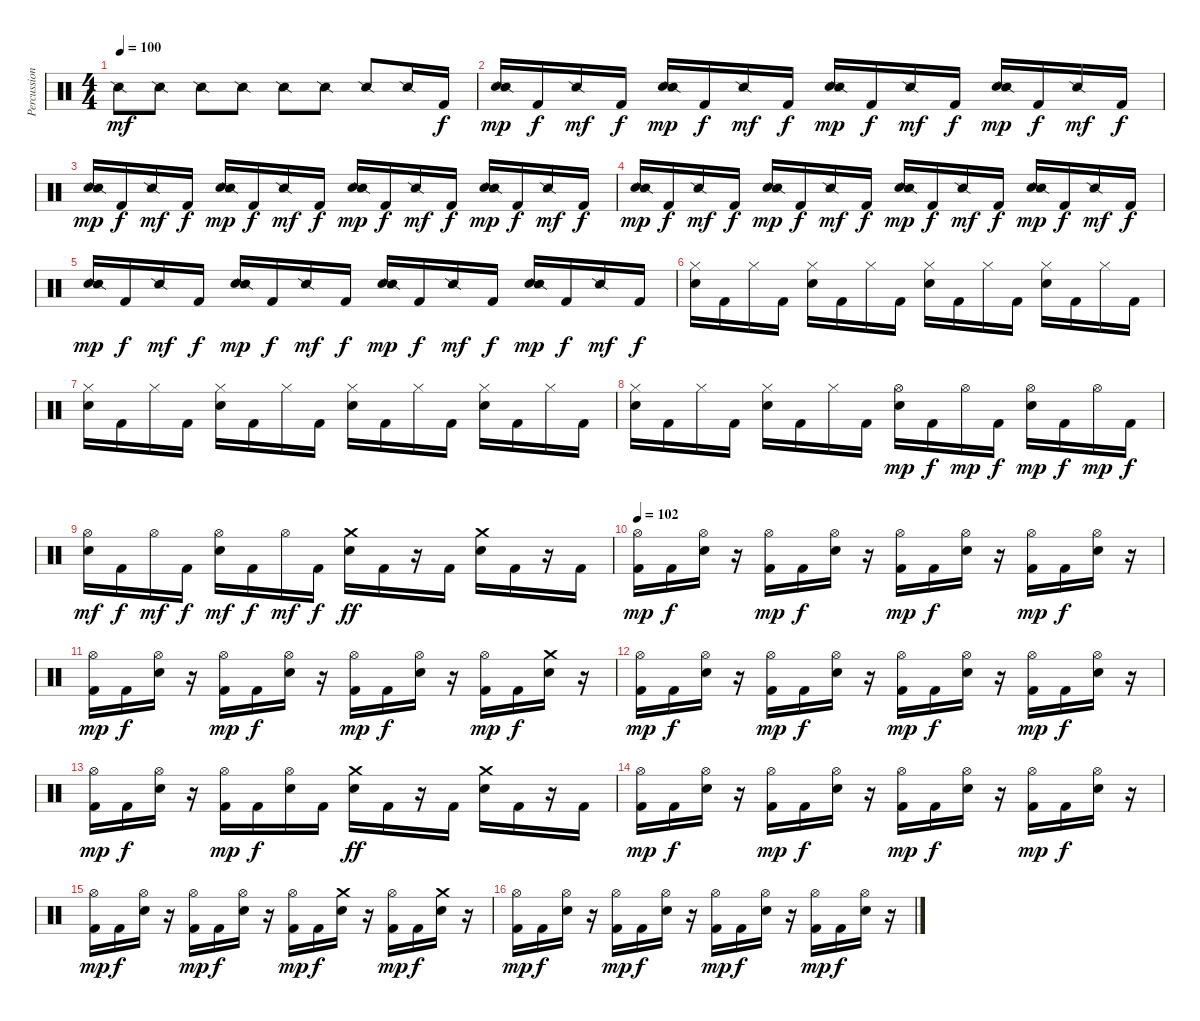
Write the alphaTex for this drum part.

\track ("Percussion" "Percussion") {instrument percussion}
\staff {score}
\articulation defaults
\ts (4 4)
\tempo 100
\clef neutral
\ks c "Snare (side stick) 2".8{dy mf} "Snare (side stick) 2".8 "Snare (side stick) 2".8 "Snare (side stick) 2".8 "Snare (side stick) 2".8 "Snare (side stick) 2".8 "Snare (side stick) 2".8 "Snare (side stick) 2".16 "Kick (hit) 2".16{dy f}
|
("Electric Snare (hit)" "Snare (side stick) 2").16{dy mp} "Kick (hit) 2".16{dy f} "Snare (side stick) 2".16{dy mf} "Kick (hit) 2".16{dy f} ("Electric Snare (hit)" "Snare (side stick) 2").16{dy mp} "Kick (hit) 2".16{dy f} "Snare (side stick) 2".16{dy mf} "Kick (hit) 2".16{dy f} ("Electric Snare (hit)" "Snare (side stick) 2").16{dy mp} "Kick (hit) 2".16{dy f} "Snare (side stick) 2".16{dy mf} "Kick (hit) 2".16{dy f} ("Electric Snare (hit)" "Snare (side stick) 2").16{dy mp} "Kick (hit) 2".16{dy f} "Snare (side stick) 2".16{dy mf} "Kick (hit) 2".16{dy f} |
("Electric Snare (hit)" "Snare (side stick) 2").16{dy mp} "Kick (hit) 2".16{dy f} "Snare (side stick) 2".16{dy mf} "Kick (hit) 2".16{dy f} ("Electric Snare (hit)" "Snare (side stick) 2").16{dy mp} "Kick (hit) 2".16{dy f} "Snare (side stick) 2".16{dy mf} "Kick (hit) 2".16{dy f} ("Electric Snare (hit)" "Snare (side stick) 2").16{dy mp} "Kick (hit) 2".16{dy f} "Snare (side stick) 2".16{dy mf} "Kick (hit) 2".16{dy f} ("Electric Snare (hit)" "Snare (side stick) 2").16{dy mp} "Kick (hit) 2".16{dy f} "Snare (side stick) 2".16{dy mf} "Kick (hit) 2".16{dy f} |
("Electric Snare (hit)" "Snare (side stick) 2").16{dy mp} "Kick (hit) 2".16{dy f} "Snare (side stick) 2".16{dy mf} "Kick (hit) 2".16{dy f} ("Electric Snare (hit)" "Snare (side stick) 2").16{dy mp} "Kick (hit) 2".16{dy f} "Snare (side stick) 2".16{dy mf} "Kick (hit) 2".16{dy f} ("Electric Snare (hit)" "Snare (side stick) 2").16{dy mp} "Kick (hit) 2".16{dy f} "Snare (side stick) 2".16{dy mf} "Kick (hit) 2".16{dy f} ("Electric Snare (hit)" "Snare (side stick) 2").16{dy mp} "Kick (hit) 2".16{dy f} "Snare (side stick) 2".16{dy mf} "Kick (hit) 2".16{dy f} |
("Electric Snare (hit)" "Snare (side stick) 2").16{dy mp} "Kick (hit) 2".16{dy f} "Snare (side stick) 2".16{dy mf} "Kick (hit) 2".16{dy f} ("Electric Snare (hit)" "Snare (side stick) 2").16{dy mp} "Kick (hit) 2".16{dy f} "Snare (side stick) 2".16{dy mf} "Kick (hit) 2".16{dy f} ("Electric Snare (hit)" "Snare (side stick) 2").16{dy mp} "Kick (hit) 2".16{dy f} "Snare (side stick) 2".16{dy mf} "Kick (hit) 2".16{dy f} ("Electric Snare (hit)" "Snare (side stick) 2").16{dy mp} "Kick (hit) 2".16{dy f} "Snare (side stick) 2".16{dy mf} "Kick (hit) 2".16{dy f} |
("Electric Snare (hit)" "Hi-Hat (closed)").16 "Kick (hit) 2".16 "Hi-Hat (closed)".16 "Kick (hit) 2".16 ("Electric Snare (hit)" "Hi-Hat (closed)").16 "Kick (hit) 2".16 "Hi-Hat (closed)".16 "Kick (hit) 2".16 ("Electric Snare (hit)" "Hi-Hat (closed)").16 "Kick (hit) 2".16 "Hi-Hat (closed)".16 "Kick (hit) 2".16 ("Electric Snare (hit)" "Hi-Hat (closed)").16 "Kick (hit) 2".16 "Hi-Hat (closed)".16 "Kick (hit) 2".16 |
("Electric Snare (hit)" "Hi-Hat (closed)").16 "Kick (hit) 2".16 "Hi-Hat (closed)".16 "Kick (hit) 2".16 ("Electric Snare (hit)" "Hi-Hat (closed)").16 "Kick (hit) 2".16 "Hi-Hat (closed)".16 "Kick (hit) 2".16 ("Electric Snare (hit)" "Hi-Hat (closed)").16 "Kick (hit) 2".16 "Hi-Hat (closed)".16 "Kick (hit) 2".16 ("Electric Snare (hit)" "Hi-Hat (closed)").16 "Kick (hit) 2".16 "Hi-Hat (closed)".16 "Kick (hit) 2".16 |
("Electric Snare (hit)" "Hi-Hat (closed)").16 "Kick (hit) 2".16 "Hi-Hat (closed)".16 "Kick (hit) 2".16 ("Electric Snare (hit)" "Hi-Hat (closed)").16 "Kick (hit) 2".16 "Hi-Hat (closed)".16 "Kick (hit) 2".16 ("Electric Snare (hit)" "Hi-Hat (open)").16{dy mp} "Kick (hit) 2".16{dy f} "Hi-Hat (open)".16{dy mp} "Kick (hit) 2".16{dy f} ("Electric Snare (hit)" "Hi-Hat (open)").16{dy mp} "Kick (hit) 2".16{dy f} "Hi-Hat (open)".16{dy mp} "Kick (hit) 2".16{dy f} |
("Electric Snare (hit)" "Hi-Hat (open)").16{dy mf} "Kick (hit) 2".16{dy f} "Hi-Hat (open)".16{dy mf} "Kick (hit) 2".16{dy f} ("Electric Snare (hit)" "Hi-Hat (open)").16{dy mf} "Kick (hit) 2".16{dy f} "Hi-Hat (open)".16{dy mf} "Kick (hit) 2".16{dy f} ("Electric Snare (hit)" "Crash medium (hit)").16{dy ff} "Kick (hit) 2".16 r.16 "Kick (hit) 2".16 ("Electric Snare (hit)" "Crash medium (hit)").16 "Kick (hit) 2".16 r.16 "Kick (hit) 2".16 |
\tempo 102
("Kick (hit) 2" "Hi-Hat (open)").16{dy mp} "Kick (hit) 2".16{dy f} ("Electric Snare (hit)" "Hi-Hat (open)").16 r.16 ("Kick (hit) 2" "Hi-Hat (open)").16{dy mp} "Kick (hit) 2".16{dy f} ("Electric Snare (hit)" "Hi-Hat (open)").16 r.16 ("Kick (hit) 2" "Hi-Hat (open)").16{dy mp} "Kick (hit) 2".16{dy f} ("Electric Snare (hit)" "Hi-Hat (open)").16 r.16 ("Kick (hit) 2" "Hi-Hat (open)").16{dy mp} "Kick (hit) 2".16{dy f} ("Electric Snare (hit)" "Hi-Hat (open)").16 r.16 |
("Kick (hit) 2" "Hi-Hat (open)").16{dy mp} "Kick (hit) 2".16{dy f} ("Electric Snare (hit)" "Hi-Hat (open)").16 r.16 ("Kick (hit) 2" "Hi-Hat (open)").16{dy mp} "Kick (hit) 2".16{dy f} ("Electric Snare (hit)" "Hi-Hat (open)").16 r.16 ("Kick (hit) 2" "Hi-Hat (open)").16{dy mp} "Kick (hit) 2".16{dy f} ("Electric Snare (hit)" "Hi-Hat (open)").16 r.16 ("Kick (hit) 2" "Hi-Hat (open)").16{dy mp} "Kick (hit) 2".16{dy f} ("Electric Snare (hit)" "Crash medium (hit)").16 r.16 |
("Kick (hit) 2" "Hi-Hat (open)").16{dy mp} "Kick (hit) 2".16{dy f} ("Electric Snare (hit)" "Hi-Hat (open)").16 r.16 ("Kick (hit) 2" "Hi-Hat (open)").16{dy mp} "Kick (hit) 2".16{dy f} ("Electric Snare (hit)" "Hi-Hat (open)").16 r.16 ("Kick (hit) 2" "Hi-Hat (open)").16{dy mp} "Kick (hit) 2".16{dy f} ("Electric Snare (hit)" "Hi-Hat (open)").16 r.16 ("Kick (hit) 2" "Hi-Hat (open)").16{dy mp} "Kick (hit) 2".16{dy f} ("Electric Snare (hit)" "Hi-Hat (open)").16 r.16 |
("Kick (hit) 2" "Hi-Hat (open)").16{dy mp} "Kick (hit) 2".16{dy f} ("Electric Snare (hit)" "Hi-Hat (open)").16 r.16 ("Kick (hit) 2" "Hi-Hat (open)").16{dy mp} "Kick (hit) 2".16{dy f} ("Electric Snare (hit)" "Hi-Hat (open)").16 "Kick (hit) 2".16 ("Electric Snare (hit)" "Crash medium (hit)").16{dy ff} "Kick (hit) 2".16 r.16 "Kick (hit) 2".16 ("Electric Snare (hit)" "Crash medium (hit)").16 "Kick (hit) 2".16 r.16 "Kick (hit) 2".16 |
("Kick (hit) 2" "Hi-Hat (open)").16{dy mp} "Kick (hit) 2".16{dy f} ("Electric Snare (hit)" "Hi-Hat (open)").16 r.16 ("Kick (hit) 2" "Hi-Hat (open)").16{dy mp} "Kick (hit) 2".16{dy f} ("Electric Snare (hit)" "Hi-Hat (open)").16 r.16 ("Kick (hit) 2" "Hi-Hat (open)").16{dy mp} "Kick (hit) 2".16{dy f} ("Electric Snare (hit)" "Hi-Hat (open)").16 r.16 ("Kick (hit) 2" "Hi-Hat (open)").16{dy mp} "Kick (hit) 2".16{dy f} ("Electric Snare (hit)" "Hi-Hat (open)").16 r.16 |
("Kick (hit) 2" "Hi-Hat (open)").16{dy mp} "Kick (hit) 2".16{dy f} ("Electric Snare (hit)" "Hi-Hat (open)").16 r.16 ("Kick (hit) 2" "Hi-Hat (open)").16{dy mp} "Kick (hit) 2".16{dy f} ("Electric Snare (hit)" "Hi-Hat (open)").16 r.16 ("Kick (hit) 2" "Hi-Hat (open)").16{dy mp} "Kick (hit) 2".16{dy f} ("Electric Snare (hit)" "Crash medium (hit)").16 r.16 ("Kick (hit) 2" "Hi-Hat (open)").16{dy mp} "Kick (hit) 2".16{dy f} ("Electric Snare (hit)" "Crash medium (hit)").16 r.16 |
("Kick (hit) 2" "Hi-Hat (open)").16{dy mp} "Kick (hit) 2".16{dy f} ("Electric Snare (hit)" "Hi-Hat (open)").16 r.16 ("Kick (hit) 2" "Hi-Hat (open)").16{dy mp} "Kick (hit) 2".16{dy f} ("Electric Snare (hit)" "Hi-Hat (open)").16 r.16 ("Kick (hit) 2" "Hi-Hat (open)").16{dy mp} "Kick (hit) 2".16{dy f} ("Electric Snare (hit)" "Hi-Hat (open)").16 r.16 ("Kick (hit) 2" "Hi-Hat (open)").16{dy mp} "Kick (hit) 2".16{dy f} ("Electric Snare (hit)" "Hi-Hat (open)").16 r.16
